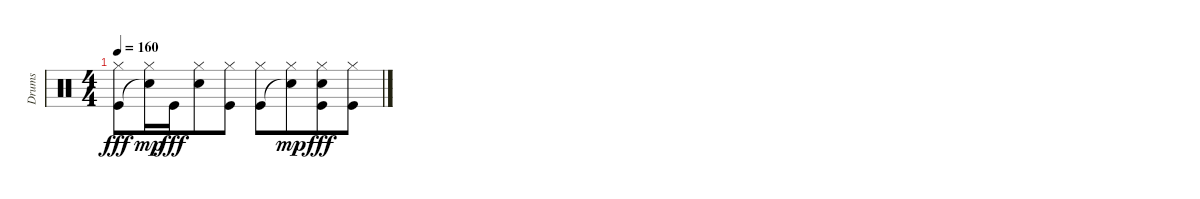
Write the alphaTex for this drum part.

\track ("Drums" "Drums") {instrument percussion}
\staff {score}
\articulation defaults
\ts (4 4)
\tempo 160
\clef neutral
\ks c
("Hi-Hat (closed)" "Kick (hit)").8{dy fff} ("Hi-Hat (closed)" "Snare (hit)"{t}).16{dy mp} "Kick (hit)".16{dy fff beam merge} ("Hi-Hat (closed)" "Snare (hit) 2").8 ("Hi-Hat (closed)" "Kick (hit)").8 ("Hi-Hat (closed)" "Kick (hit)").8 ("Hi-Hat (closed)" "Snare (hit)"{t}).8{dy mp beam merge} ("Hi-Hat (closed)" "Snare (hit) 2" "Kick (hit)"{t}).8{dy fff} ("Hi-Hat (closed)" "Kick (hit)").8
